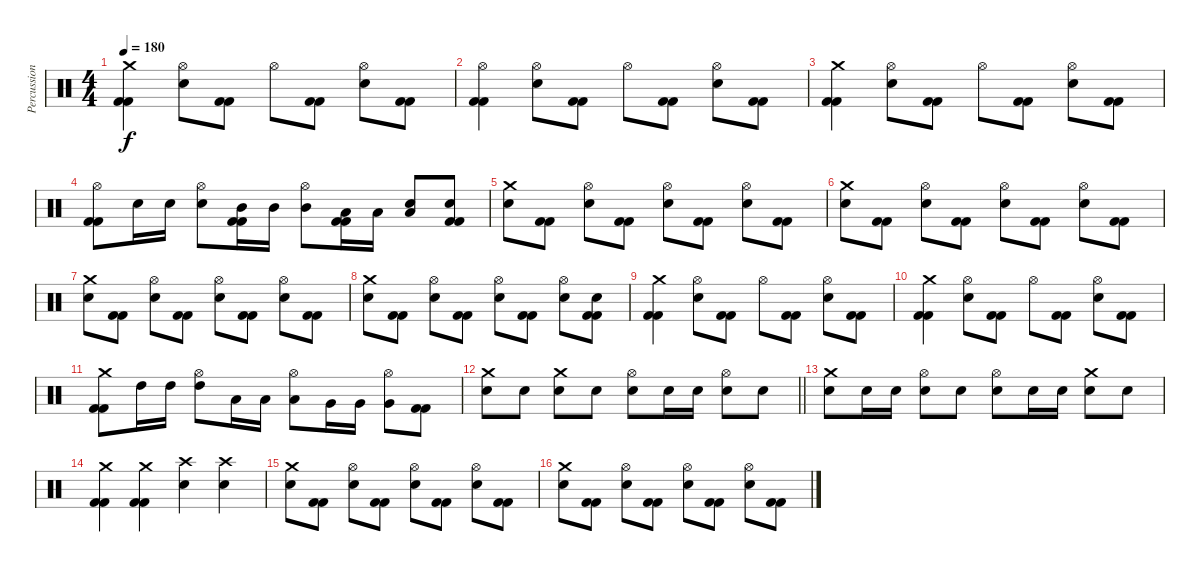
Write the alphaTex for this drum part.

\track ("Percussioni" "Percussion") {instrument percussion}
\staff {score}
\articulation defaults
\ts (4 4)
\tempo 180
\clef neutral
\ks c
("Crash medium (hit)" "Kick (hit) 2" "Kick (hit) 2").4{dy f} ("Hi-Hat (open)" "Electric Snare (hit)").8 ("Kick (hit) 2" "Kick (hit) 2").8 "Hi-Hat (open)".8 ("Kick (hit) 2" "Kick (hit) 2").8 ("Hi-Hat (open)" "Electric Snare (hit)").8 ("Kick (hit) 2" "Kick (hit) 2").8 |
("Hi-Hat (open)" "Kick (hit) 2" "Kick (hit) 2").4 ("Hi-Hat (open)" "Electric Snare (hit)").8 ("Kick (hit) 2" "Kick (hit) 2").8 "Hi-Hat (open)".8 ("Kick (hit) 2" "Kick (hit) 2").8 ("Hi-Hat (open)" "Electric Snare (hit)").8 ("Kick (hit) 2" "Kick (hit) 2").8 |
("Crash medium (hit)" "Kick (hit) 2" "Kick (hit) 2").4 ("Hi-Hat (open)" "Electric Snare (hit)").8 ("Kick (hit) 2" "Kick (hit) 2").8 "Hi-Hat (open)".8 ("Kick (hit) 2" "Kick (hit) 2").8 ("Hi-Hat (open)" "Electric Snare (hit)").8 ("Kick (hit) 2" "Kick (hit) 2").8 |
("Hi-Hat (open)" "Kick (hit) 2" "Kick (hit) 2").8 "Electric Snare (hit)".16 "Electric Snare (hit)".16 ("Hi-Hat (open)" "Electric Snare (hit)").8 ("Mid Tom (hit)" "Kick (hit) 2" "Kick (hit) 2").16 "Mid Tom (hit)".16 ("Hi-Hat (open)" "Mid Tom (hit)").8 ("Low Tom (hit)" "Kick (hit) 2" "Kick (hit) 2").16 "Low Tom (hit)".16 ("Low Tom (hit)" "Electric Snare (hit)").8 ("Electric Snare (hit)" "Kick (hit) 2" "Kick (hit) 2").8 |
("Crash medium (hit)" "Electric Snare (hit)").8 ("Kick (hit) 2" "Kick (hit) 2").8 ("Hi-Hat (open)" "Electric Snare (hit)").8 ("Kick (hit) 2" "Kick (hit) 2").8 ("Hi-Hat (open)" "Electric Snare (hit)").8 ("Kick (hit) 2" "Kick (hit) 2").8 ("Hi-Hat (open)" "Electric Snare (hit)").8 ("Kick (hit) 2" "Kick (hit) 2").8 |
("Crash medium (hit)" "Electric Snare (hit)").8 ("Kick (hit) 2" "Kick (hit) 2").8 ("Hi-Hat (open)" "Electric Snare (hit)").8 ("Kick (hit) 2" "Kick (hit) 2").8 ("Hi-Hat (open)" "Electric Snare (hit)").8 ("Kick (hit) 2" "Kick (hit) 2").8 ("Hi-Hat (open)" "Electric Snare (hit)").8 ("Kick (hit) 2" "Kick (hit) 2").8 |
("Crash medium (hit)" "Electric Snare (hit)").8 ("Kick (hit) 2" "Kick (hit) 2").8 ("Hi-Hat (open)" "Electric Snare (hit)").8 ("Kick (hit) 2" "Kick (hit) 2").8 ("Hi-Hat (open)" "Electric Snare (hit)").8 ("Kick (hit) 2" "Kick (hit) 2").8 ("Hi-Hat (open)" "Electric Snare (hit)").8 ("Kick (hit) 2" "Kick (hit) 2").8 |
("Crash medium (hit)" "Electric Snare (hit)").8 ("Kick (hit) 2" "Kick (hit) 2").8 ("Hi-Hat (open)" "Electric Snare (hit)").8 ("Kick (hit) 2" "Kick (hit) 2").8 ("Hi-Hat (open)" "Electric Snare (hit)").8 ("Kick (hit) 2" "Kick (hit) 2").8 ("Hi-Hat (open)" "Electric Snare (hit)").8 ("Electric Snare (hit)" "Kick (hit) 2" "Kick (hit) 2").8 |
("Crash medium (hit)" "Kick (hit) 2" "Kick (hit) 2").4 ("Hi-Hat (open)" "Electric Snare (hit)").8 ("Kick (hit) 2" "Kick (hit) 2").8 "Hi-Hat (open)".8 ("Kick (hit) 2" "Kick (hit) 2").8 ("Hi-Hat (open)" "Electric Snare (hit)").8 ("Kick (hit) 2" "Kick (hit) 2").8 |
("Crash medium (hit)" "Kick (hit) 2" "Kick (hit) 2").4 ("Hi-Hat (open)" "Electric Snare (hit)").8 ("Kick (hit) 2" "Kick (hit) 2").8 "Hi-Hat (open)".8 ("Kick (hit) 2" "Kick (hit) 2").8 ("Hi-Hat (open)" "Electric Snare (hit)").8 ("Kick (hit) 2" "Kick (hit) 2").8 |
("Crash medium (hit)" "Kick (hit) 2" "Kick (hit) 2").8 "High Tom (hit)".16 "High Tom (hit)".16 ("Hi-Hat (open)" "High Tom (hit)").8 "Low Tom (hit)".16 "Low Tom (hit)".16 ("Hi-Hat (open)" "Low Tom (hit)").8 "Very Low Tom (hit)".16 "Very Low Tom (hit)".16 ("Hi-Hat (open)" "Very Low Tom (hit)").8 ("Kick (hit) 2" "Kick (hit) 2").8 |
\barLineRight lightlight
("Crash medium (hit)" "Electric Snare (hit)").8 "Electric Snare (hit)".8 ("Crash medium (hit)" "Electric Snare (hit)").8 "Electric Snare (hit)".8 ("Hi-Hat (open)" "Electric Snare (hit)").8 "Electric Snare (hit)".16 "Electric Snare (hit)".16 ("Hi-Hat (open)" "Electric Snare (hit)").8 "Electric Snare (hit)".8 |
("Crash medium (hit)" "Electric Snare (hit)").8 "Electric Snare (hit)".16 "Electric Snare (hit)".16 ("Hi-Hat (open)" "Electric Snare (hit)").8 "Electric Snare (hit)".8 ("Hi-Hat (open)" "Electric Snare (hit)").8 "Electric Snare (hit)".16 "Electric Snare (hit)".16 ("Crash medium (hit)" "Electric Snare (hit)").8 "Electric Snare (hit)".8 |
("Crash medium (hit)" "Kick (hit) 2" "Kick (hit) 2").4 ("Crash medium (hit)" "Kick (hit) 2" "Kick (hit) 2").4 ("Crash high (hit)" "Electric Snare (hit)").4 ("Crash high (hit)" "Electric Snare (hit)").4 |
("Crash medium (hit)" "Electric Snare (hit)").8 ("Kick (hit) 2" "Kick (hit) 2").8 ("Hi-Hat (open)" "Electric Snare (hit)").8 ("Kick (hit) 2" "Kick (hit) 2").8 ("Hi-Hat (open)" "Electric Snare (hit)").8 ("Kick (hit) 2" "Kick (hit) 2").8 ("Hi-Hat (open)" "Electric Snare (hit)").8 ("Kick (hit) 2" "Kick (hit) 2").8 |
("Crash medium (hit)" "Electric Snare (hit)").8 ("Kick (hit) 2" "Kick (hit) 2").8 ("Hi-Hat (open)" "Electric Snare (hit)").8 ("Kick (hit) 2" "Kick (hit) 2").8 ("Hi-Hat (open)" "Electric Snare (hit)").8 ("Kick (hit) 2" "Kick (hit) 2").8 ("Hi-Hat (open)" "Electric Snare (hit)").8 ("Kick (hit) 2" "Kick (hit) 2").8
